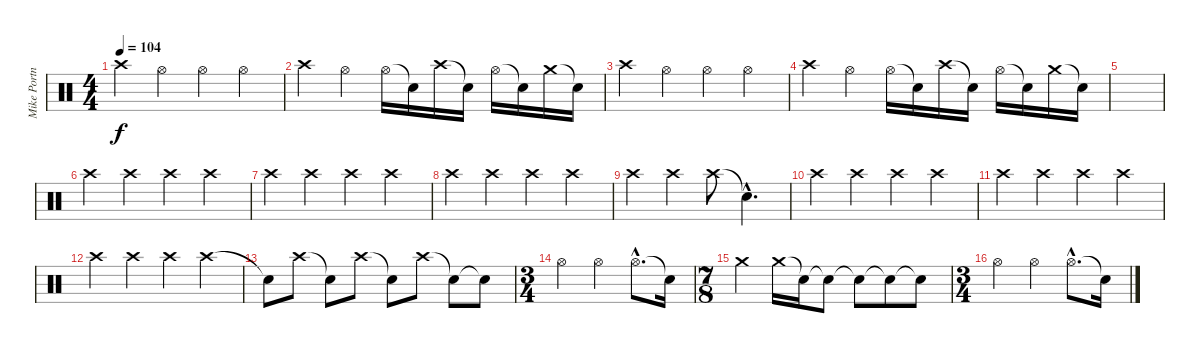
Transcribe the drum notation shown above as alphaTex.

\track ("Mike Portnoy" "Mike Portn") {instrument percussion}
\staff {score}
\articulation defaults
\ts (4 4)
\tempo 104
\clef neutral
\ks c "Crash high (hit)".4{dy f} "Hi-Hat (open)".4 "Hi-Hat (open)".4 "Hi-Hat (open)".4
|
"Crash high (hit)".4 "Hi-Hat (open)".4 "Hi-Hat (open)".16 "Snare (hit)"{t}.16 "Crash high (hit)".16 "Snare (hit)"{t}.16 "Hi-Hat (open)".16 "Snare (hit)"{t}.16 "Crash medium (hit)".16 "Snare (hit)"{t}.16 |
"Crash high (hit)".4 "Hi-Hat (open)".4 "Hi-Hat (open)".4 "Hi-Hat (open)".4 |
"Crash high (hit)".4 "Hi-Hat (open)".4 "Hi-Hat (open)".16 "Snare (hit)"{t}.16 "Crash high (hit)".16 "Snare (hit)"{t}.16 "Hi-Hat (open)".16 "Snare (hit)"{t}.16 "Crash medium (hit)".16 "Snare (hit)"{t}.16 |
|
"Crash high (hit)".4 "Crash high (hit)".4 "Crash high (hit)".4 "Crash high (hit)".4 |
"Crash high (hit)".4 "Crash high (hit)".4 "Crash high (hit)".4 "Crash high (hit)".4 |
"Crash high (hit)".4 "Crash high (hit)".4 "Crash high (hit)".4 "Crash high (hit)".4 |
"Crash high (hit)".4 "Crash high (hit)".4 "Crash high (hit)".8 "Snare (hit)"{hac t}.4{d} |
"Crash high (hit)".4 "Crash high (hit)".4 "Crash high (hit)".4 "Crash high (hit)".4 |
"Crash high (hit)".4 "Crash high (hit)".4 "Crash high (hit)".4 "Crash high (hit)".4 |
"Crash high (hit)".4 "Crash high (hit)".4 "Crash high (hit)".4 "Crash high (hit)".4 |
"Snare (hit)"{t}.8 "Crash high (hit)".8 "Snare (hit)"{t}.8 "Crash high (hit)".8 "Snare (hit)"{t}.8 "Crash high (hit)".8 "Snare (hit)"{t}.8 "Snare (hit)"{t}.8 |
\ts (3 4)
"Hi-Hat (open)".4 "Hi-Hat (open)".4 "Hi-Hat (open)"{hac}.8{d} "Snare (hit)"{t}.16 |
\ts (7 8)
"Crash medium (hit)".4 "Crash medium (hit)".16 "Snare (hit)"{t}.16 "Snare (hit)"{t}.8 "Snare (hit)"{t}.8 "Snare (hit)"{t}.8 "Snare (hit)"{t}.8 |
\ts (3 4)
"Hi-Hat (open)".4 "Hi-Hat (open)".4 "Hi-Hat (open)"{hac}.8{d} "Snare (hit)"{t}.16
